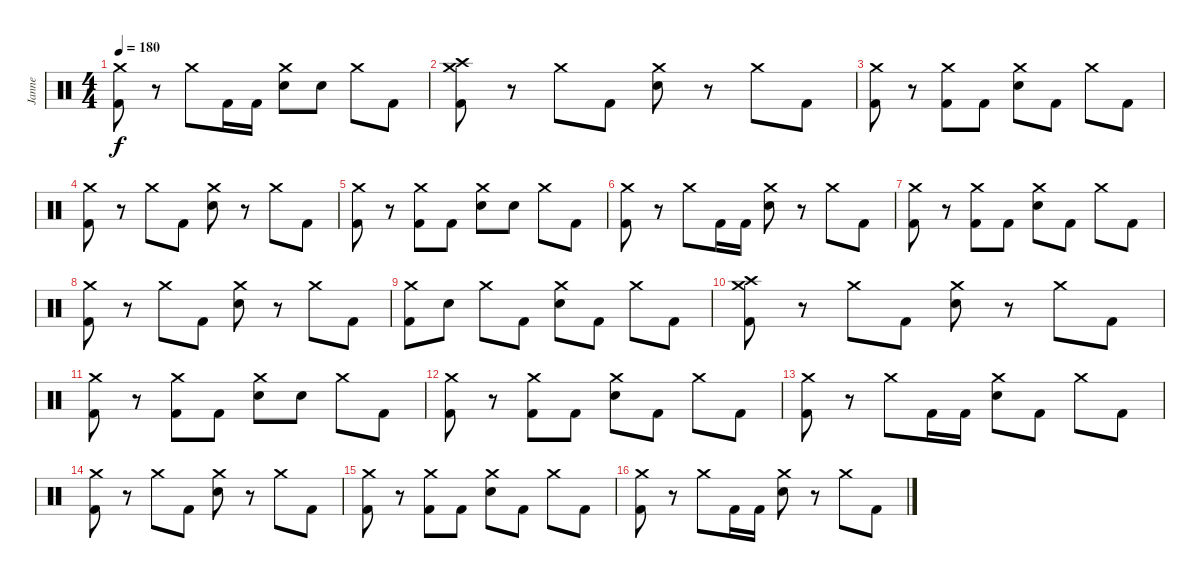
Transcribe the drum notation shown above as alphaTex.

\track ("Janne" "Janne") {instrument percussion}
\staff {score}
\articulation defaults
\ts (4 4)
\tempo 180
\clef neutral
\ks c
("Crash medium (hit)" "Kick (hit) 2").8{dy f} r.8 "Crash medium (hit)".8 "Kick (hit) 2".16 "Kick (hit) 2".16 ("Crash medium (hit)" "Electric Snare (hit)").8 "Electric Snare (hit)".8 "Crash medium (hit)".8 "Kick (hit) 2".8 |
("Crash medium (hit)" "Crash high (hit)" "Kick (hit) 2").8{volume 12} r.8 "Crash medium (hit)".8 "Kick (hit) 2".8 ("Crash medium (hit)" "Electric Snare (hit)").8 r.8 "Crash medium (hit)".8 "Kick (hit) 2".8 |
("Crash medium (hit)" "Kick (hit) 2").8 r.8 ("Crash medium (hit)" "Kick (hit) 2").8 "Kick (hit) 2".8 ("Crash medium (hit)" "Electric Snare (hit)").8 "Kick (hit) 2".8 "Crash medium (hit)".8 "Kick (hit) 2".8 |
("Crash medium (hit)" "Kick (hit) 2").8 r.8 "Crash medium (hit)".8 "Kick (hit) 2".8 ("Crash medium (hit)" "Electric Snare (hit)").8 r.8 "Crash medium (hit)".8 "Kick (hit) 2".8 |
("Crash medium (hit)" "Kick (hit) 2").8 r.8 ("Crash medium (hit)" "Kick (hit) 2").8 "Kick (hit) 2".8 ("Crash medium (hit)" "Electric Snare (hit)").8 "Electric Snare (hit)".8 "Crash medium (hit)".8 "Kick (hit) 2".8 |
("Crash medium (hit)" "Kick (hit) 2").8{volume 11} r.8 "Crash medium (hit)".8 "Kick (hit) 2".16 "Kick (hit) 2".16 ("Crash medium (hit)" "Electric Snare (hit)").8 r.8 "Crash medium (hit)".8 "Kick (hit) 2".8 |
("Crash medium (hit)" "Kick (hit) 2").8 r.8 ("Crash medium (hit)" "Kick (hit) 2").8 "Kick (hit) 2".8 ("Crash medium (hit)" "Electric Snare (hit)").8 "Kick (hit) 2".8 "Crash medium (hit)".8 "Kick (hit) 2".8 |
("Crash medium (hit)" "Kick (hit) 2").8 r.8 "Crash medium (hit)".8 "Kick (hit) 2".8 ("Crash medium (hit)" "Electric Snare (hit)").8 r.8 "Crash medium (hit)".8 "Kick (hit) 2".8 |
("Crash medium (hit)" "Kick (hit) 2").8 "Electric Snare (hit)".8 "Crash medium (hit)".8 "Kick (hit) 2".8 ("Crash medium (hit)" "Electric Snare (hit)").8 "Kick (hit) 2".8 "Crash medium (hit)".8 "Kick (hit) 2".8 |
("Crash medium (hit)" "Crash high (hit)" "Kick (hit) 2").8{volume 10} r.8 "Crash medium (hit)".8 "Kick (hit) 2".8 ("Crash medium (hit)" "Electric Snare (hit)").8 r.8 "Crash medium (hit)".8 "Kick (hit) 2".8 |
("Crash medium (hit)" "Kick (hit) 2").8 r.8 ("Crash medium (hit)" "Kick (hit) 2").8 "Kick (hit) 2".8 ("Crash medium (hit)" "Electric Snare (hit)").8 "Electric Snare (hit)".8 "Crash medium (hit)".8 "Kick (hit) 2".8 |
("Crash medium (hit)" "Kick (hit) 2").8 r.8 ("Crash medium (hit)" "Kick (hit) 2").8 "Kick (hit) 2".8 ("Crash medium (hit)" "Electric Snare (hit)").8 "Kick (hit) 2".8 "Crash medium (hit)".8 "Kick (hit) 2".8 |
("Crash medium (hit)" "Kick (hit) 2").8 r.8 "Crash medium (hit)".8 "Kick (hit) 2".16 "Kick (hit) 2".16 ("Crash medium (hit)" "Electric Snare (hit)").8 "Kick (hit) 2".8 "Crash medium (hit)".8 "Kick (hit) 2".8 |
("Crash medium (hit)" "Kick (hit) 2").8{volume 9} r.8 "Crash medium (hit)".8 "Kick (hit) 2".8 ("Crash medium (hit)" "Electric Snare (hit)").8 r.8 "Crash medium (hit)".8 "Kick (hit) 2".8 |
("Crash medium (hit)" "Kick (hit) 2").8 r.8 ("Crash medium (hit)" "Kick (hit) 2").8 "Kick (hit) 2".8 ("Crash medium (hit)" "Electric Snare (hit)").8 "Kick (hit) 2".8 "Crash medium (hit)".8 "Kick (hit) 2".8 |
("Crash medium (hit)" "Kick (hit) 2").8 r.8 "Crash medium (hit)".8 "Kick (hit) 2".16 "Kick (hit) 2".16 ("Crash medium (hit)" "Electric Snare (hit)").8 r.8 "Crash medium (hit)".8 "Kick (hit) 2".8
